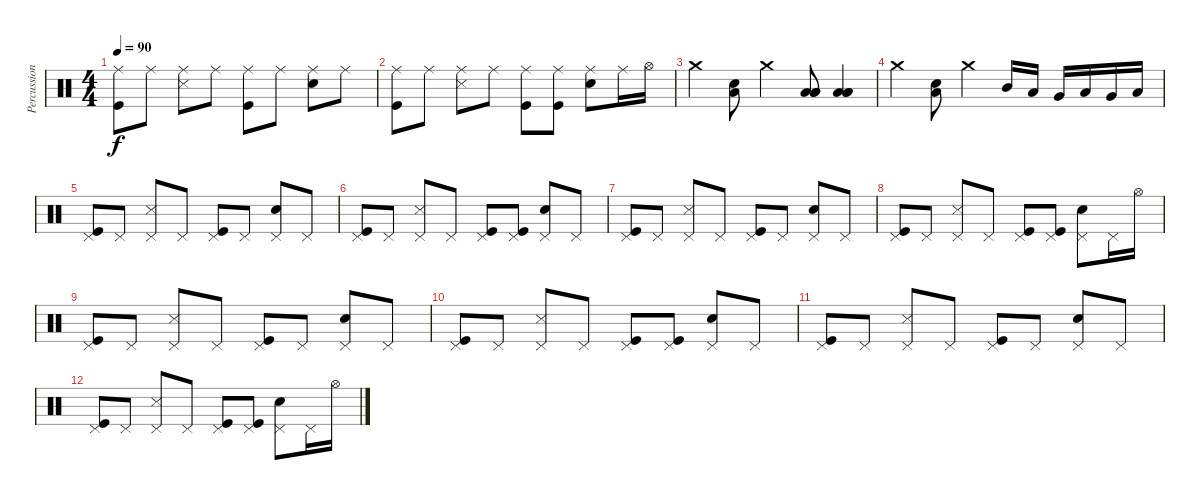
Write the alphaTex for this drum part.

\track ("Percussion" "Percussion") {instrument percussion}
\staff {score}
\articulation defaults
\ts (4 4)
\tempo 90
\clef neutral
\ks c
("Ride (middle)" "Kick (hit)").8{dy f} "Ride (middle)".8 ("Ride (middle)" "Snare (side stick) 3").8 "Ride (middle)".8 ("Ride (middle)" "Kick (hit)").8 "Ride (middle)".8 ("Ride (middle)" "Electric Snare (hit)").8 "Ride (middle)".8 |
("Ride (middle)" "Kick (hit)").8 "Ride (middle)".8 ("Ride (middle)" "Snare (side stick) 3").8 "Ride (middle)".8 ("Ride (middle)" "Kick (hit)").8 ("Ride (middle)" "Kick (hit)").8 ("Ride (middle)" "Electric Snare (hit)").8 "Ride (middle)".16 "Hi-Hat (open)".16 |
"Crash medium (hit)".4 ("Low Tom (hit)" "Electric Snare (hit)").8 "Crash medium (hit)".4 ("Low Tom (hit)" "Low Tom (hit)" "Low Tom (hit)").8 ("Low Tom (hit)" "Low Tom (hit)" "Low Tom (hit)").4 |
"Crash medium (hit)".4 ("Low Tom (hit)" "Electric Snare (hit)").8 "Crash medium (hit)".4 "Mid Tom (hit)".16 "Low Tom (hit)".16 "Very Low Tom (hit)".16 "Low Floor Tom (hit)".16 "Very Low Tom (hit)".16 "Low Floor Tom (hit)".16 |
("Pedal Hi-Hat (hit)" "Kick (hit)").8 "Pedal Hi-Hat (hit)".8 ("Pedal Hi-Hat (hit)" "Snare (side stick) 3").8 "Pedal Hi-Hat (hit)".8 ("Pedal Hi-Hat (hit)" "Kick (hit)").8 "Pedal Hi-Hat (hit)".8 ("Pedal Hi-Hat (hit)" "Electric Snare (hit)").8 "Pedal Hi-Hat (hit)".8 |
("Pedal Hi-Hat (hit)" "Kick (hit)").8 "Pedal Hi-Hat (hit)".8 ("Pedal Hi-Hat (hit)" "Snare (side stick) 3").8 "Pedal Hi-Hat (hit)".8 ("Pedal Hi-Hat (hit)" "Kick (hit)").8 ("Pedal Hi-Hat (hit)" "Kick (hit)").8 ("Pedal Hi-Hat (hit)" "Electric Snare (hit)").8 "Pedal Hi-Hat (hit)".8 |
("Pedal Hi-Hat (hit)" "Kick (hit)").8 "Pedal Hi-Hat (hit)".8 ("Pedal Hi-Hat (hit)" "Snare (side stick) 3").8 "Pedal Hi-Hat (hit)".8 ("Pedal Hi-Hat (hit)" "Kick (hit)").8 "Pedal Hi-Hat (hit)".8 ("Pedal Hi-Hat (hit)" "Electric Snare (hit)").8 "Pedal Hi-Hat (hit)".8 |
("Pedal Hi-Hat (hit)" "Kick (hit)").8 "Pedal Hi-Hat (hit)".8 ("Pedal Hi-Hat (hit)" "Snare (side stick) 3").8 "Pedal Hi-Hat (hit)".8 ("Pedal Hi-Hat (hit)" "Kick (hit)").8 ("Pedal Hi-Hat (hit)" "Kick (hit)").8 ("Pedal Hi-Hat (hit)" "Electric Snare (hit)").8 "Pedal Hi-Hat (hit)".16 "Hi-Hat (open)".16 |
("Pedal Hi-Hat (hit)" "Kick (hit)").8 "Pedal Hi-Hat (hit)".8 ("Pedal Hi-Hat (hit)" "Snare (side stick) 3").8 "Pedal Hi-Hat (hit)".8 ("Pedal Hi-Hat (hit)" "Kick (hit)").8 "Pedal Hi-Hat (hit)".8 ("Pedal Hi-Hat (hit)" "Electric Snare (hit)").8 "Pedal Hi-Hat (hit)".8 |
("Pedal Hi-Hat (hit)" "Kick (hit)").8 "Pedal Hi-Hat (hit)".8 ("Pedal Hi-Hat (hit)" "Snare (side stick) 3").8 "Pedal Hi-Hat (hit)".8 ("Pedal Hi-Hat (hit)" "Kick (hit)").8 ("Pedal Hi-Hat (hit)" "Kick (hit)").8 ("Pedal Hi-Hat (hit)" "Electric Snare (hit)").8 "Pedal Hi-Hat (hit)".8 |
("Pedal Hi-Hat (hit)" "Kick (hit)").8 "Pedal Hi-Hat (hit)".8 ("Pedal Hi-Hat (hit)" "Snare (side stick) 3").8 "Pedal Hi-Hat (hit)".8 ("Pedal Hi-Hat (hit)" "Kick (hit)").8 "Pedal Hi-Hat (hit)".8 ("Pedal Hi-Hat (hit)" "Electric Snare (hit)").8 "Pedal Hi-Hat (hit)".8 |
("Pedal Hi-Hat (hit)" "Kick (hit)").8 "Pedal Hi-Hat (hit)".8 ("Pedal Hi-Hat (hit)" "Snare (side stick) 3").8 "Pedal Hi-Hat (hit)".8 ("Pedal Hi-Hat (hit)" "Kick (hit)").8 ("Pedal Hi-Hat (hit)" "Kick (hit)").8 ("Pedal Hi-Hat (hit)" "Electric Snare (hit)").8 "Pedal Hi-Hat (hit)".16 "Hi-Hat (open)".16
